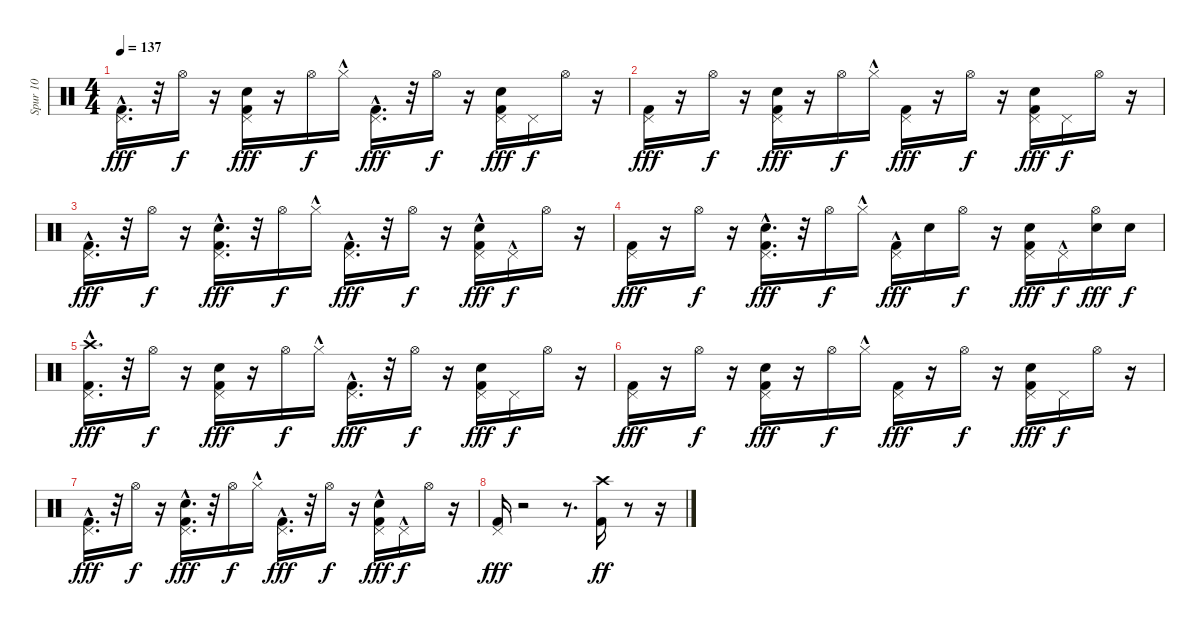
\track ("Spur 10" "Spur 10") {instrument percussion}
\staff {score}
\articulation defaults
\ts (4 4)
\tempo 137
\clef neutral
\ks c
("Pedal Hi-Hat (hit)" "Kick (hit) 2"{hac}).16{d dy fff} r.32 "Hi-Hat (open)".16{dy f} r.16 ("Snare (hit) 2" "Pedal Hi-Hat (hit)" "Kick (hit) 2").16{dy fff} r.16 "Hi-Hat (open)".16{dy f} "Hi-Hat (closed)"{hac}.16 ("Pedal Hi-Hat (hit)" "Kick (hit) 2"{hac}).16{d dy fff} r.32 "Hi-Hat (open)".16{dy f} r.16 ("Snare (hit) 2" "Pedal Hi-Hat (hit)" "Kick (hit) 2").16{dy fff} "Pedal Hi-Hat (hit)".16{dy f} "Hi-Hat (open)".16 r.16 |
("Pedal Hi-Hat (hit)" "Kick (hit) 2").16{dy fff} r.16 "Hi-Hat (open)".16{dy f} r.16 ("Snare (hit) 2" "Pedal Hi-Hat (hit)" "Kick (hit) 2").16{dy fff} r.16 "Hi-Hat (open)".16{dy f} "Hi-Hat (closed)"{hac}.16 ("Pedal Hi-Hat (hit)" "Kick (hit) 2").16{dy fff} r.16 "Hi-Hat (open)".16{dy f} r.16 ("Snare (hit) 2" "Pedal Hi-Hat (hit)" "Kick (hit) 2").16{dy fff} "Pedal Hi-Hat (hit)".16{dy f} "Hi-Hat (open)".16 r.16 |
("Pedal Hi-Hat (hit)" "Kick (hit) 2"{hac}).16{d dy fff} r.32 "Hi-Hat (open)".16{dy f} r.16 ("Snare (hit) 2" "Pedal Hi-Hat (hit)" "Kick (hit) 2"{hac}).16{d dy fff} r.32 "Hi-Hat (open)".16{dy f} "Hi-Hat (closed)"{hac}.16 ("Pedal Hi-Hat (hit)"{hac} "Kick (hit) 2"{hac}).16{d dy fff} r.32 "Hi-Hat (open)".16{dy f} r.16 ("Snare (hit) 2" "Pedal Hi-Hat (hit)" "Kick (hit) 2"{hac}).16{dy fff} "Pedal Hi-Hat (hit)"{hac}.16{dy f} "Hi-Hat (open)".16 r.16 |
("Pedal Hi-Hat (hit)" "Kick (hit) 2").16{dy fff} r.16 "Hi-Hat (open)".16{dy f} r.16 ("Snare (hit) 2" "Pedal Hi-Hat (hit)" "Kick (hit) 2"{hac}).16{d dy fff} r.32 "Hi-Hat (open)".16{dy f} "Hi-Hat (closed)"{hac}.16 ("Pedal Hi-Hat (hit)" "Kick (hit) 2"{hac}).16{dy fff} "Snare (hit) 2".16 "Hi-Hat (open)".16{dy f} r.16 ("Snare (hit) 2" "Pedal Hi-Hat (hit)" "Kick (hit) 2").16{dy fff} "Pedal Hi-Hat (hit)"{hac}.16{dy f} ("Snare (hit) 2" "Hi-Hat (open)").16{dy fff} "Snare (hit) 2".16{dy f} |
("Crash high (hit)" "Pedal Hi-Hat (hit)" "Kick (hit) 2"{hac}).16{d dy fff} r.32 "Hi-Hat (open)".16{dy f} r.16 ("Snare (hit) 2" "Pedal Hi-Hat (hit)" "Kick (hit) 2").16{dy fff} r.16 "Hi-Hat (open)".16{dy f} "Hi-Hat (closed)"{hac}.16 ("Pedal Hi-Hat (hit)" "Kick (hit) 2"{hac}).16{d dy fff} r.32 "Hi-Hat (open)".16{dy f} r.16 ("Snare (hit) 2" "Pedal Hi-Hat (hit)" "Kick (hit) 2").16{dy fff} "Pedal Hi-Hat (hit)".16{dy f} "Hi-Hat (open)".16 r.16 |
("Pedal Hi-Hat (hit)" "Kick (hit) 2").16{dy fff} r.16 "Hi-Hat (open)".16{dy f} r.16 ("Snare (hit) 2" "Pedal Hi-Hat (hit)" "Kick (hit) 2").16{dy fff} r.16 "Hi-Hat (open)".16{dy f} "Hi-Hat (closed)"{hac}.16 ("Pedal Hi-Hat (hit)" "Kick (hit) 2").16{dy fff} r.16 "Hi-Hat (open)".16{dy f} r.16 ("Snare (hit) 2" "Pedal Hi-Hat (hit)" "Kick (hit) 2").16{dy fff} "Pedal Hi-Hat (hit)".16{dy f} "Hi-Hat (open)".16 r.16 |
("Pedal Hi-Hat (hit)" "Kick (hit) 2"{hac}).16{d dy fff} r.32 "Hi-Hat (open)".16{dy f} r.16 ("Snare (hit) 2" "Pedal Hi-Hat (hit)" "Kick (hit) 2"{hac}).16{d dy fff} r.32 "Hi-Hat (open)".16{dy f} "Hi-Hat (closed)"{hac}.16 ("Pedal Hi-Hat (hit)"{hac} "Kick (hit) 2"{hac}).16{d dy fff} r.32 "Hi-Hat (open)".16{dy f} r.16 ("Snare (hit) 2" "Pedal Hi-Hat (hit)" "Kick (hit) 2"{hac}).16{dy fff} "Pedal Hi-Hat (hit)"{hac}.16{dy f} "Hi-Hat (open)".16 r.16 |
("Pedal Hi-Hat (hit)" "Kick (hit) 2").16{dy fff} r.2 r.8{d} ("Crash high (hit)" "Kick (hit) 2").16{dy ff} r.8 r.16
